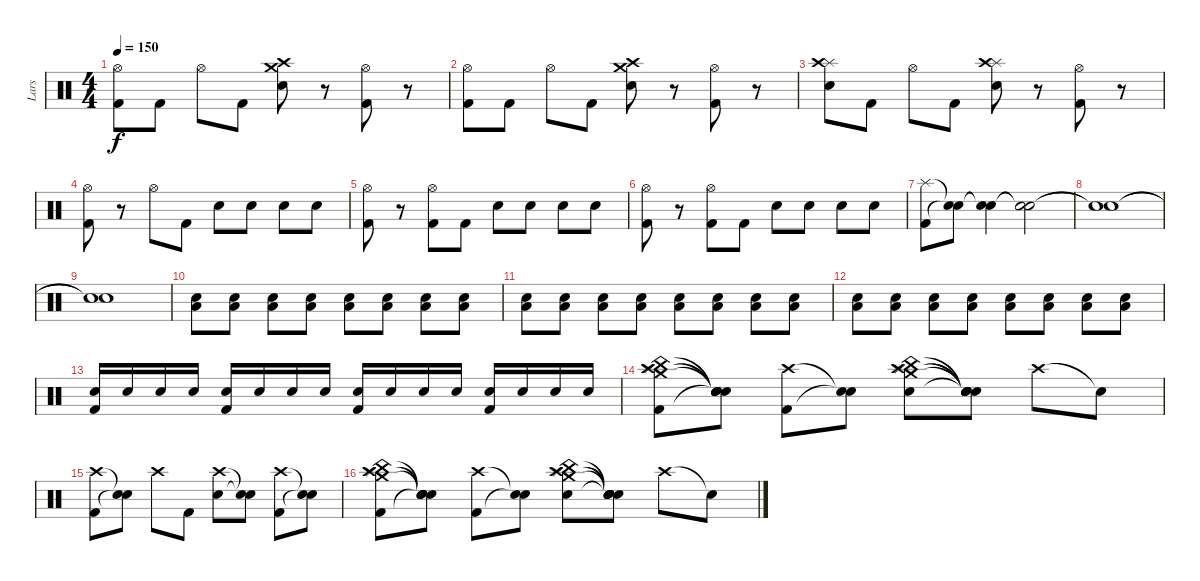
\track ("Lars" "Lars") {instrument percussion}
\staff {score}
\articulation defaults
\ts (4 4)
\tempo 150
\clef neutral
\ks c
("Hi-Hat (open)" "Kick (hit) 2").8{dy f} "Kick (hit) 2".8 "Hi-Hat (open)".8 "Kick (hit) 2".8 ("Crash high (hit)" "Crash medium (hit)" "Snare (hit) 2").8 r.8 ("Kick (hit) 2" "Hi-Hat (open)").8 r.8 |
("Hi-Hat (open)" "Kick (hit) 2").8 "Kick (hit) 2".8 "Hi-Hat (open)".8 "Kick (hit) 2".8 ("Crash medium (hit)" "Crash high (hit)" "Snare (hit) 2").8 r.8 ("Kick (hit) 2" "Hi-Hat (open)").8 r.8 |
("Splash (hit)" "Crash high (hit)" "Snare (hit) 2").8 "Kick (hit) 2".8 "Hi-Hat (open)".8 "Kick (hit) 2".8 ("Splash (hit)" "Crash high (hit)" "Snare (hit) 2").8 r.8 ("Hi-Hat (open)" "Kick (hit) 2").8 r.8 |
("Hi-Hat (open)" "Kick (hit) 2").8 r.8 "Hi-Hat (open)".8 "Kick (hit) 2".8 "Snare (hit) 2".8 "Snare (hit) 2".8 "Snare (hit) 2".8 "Snare (hit) 2".8 |
("Hi-Hat (open)" "Kick (hit) 2").8 r.8 ("Kick (hit) 2" "Hi-Hat (open)").8 "Kick (hit) 2".8 "Snare (hit) 2".8 "Snare (hit) 2".8 "Snare (hit) 2".8 "Snare (hit) 2".8 |
("Hi-Hat (open)" "Kick (hit) 2").8 r.8 ("Kick (hit) 2" "Hi-Hat (open)").8 "Kick (hit) 2".8 "Snare (hit) 2".8 "Snare (hit) 2".8 "Snare (hit) 2".8 "Snare (hit) 2".8 |
("Splash (hit)" "Kick (hit) 2").8 ("Snare (hit)"{t} "Snare (hit)"{t}).8 ("Snare (hit)"{t} "Snare (hit)"{t}).4 ("Snare (hit)"{t} "Snare (hit)"{t}).2 |
("Snare (hit)"{t} "Snare (hit)"{t}).1 |
("Snare (hit)"{t} "Snare (hit)"{t}).1 |
("Low Floor Tom (hit)" "Snare (hit) 2").8 ("Snare (hit) 2" "Low Floor Tom (hit)").8 ("Snare (hit) 2" "Low Floor Tom (hit)").8 ("Snare (hit) 2" "Low Floor Tom (hit)").8 ("Snare (hit) 2" "Low Floor Tom (hit)").8 ("Snare (hit) 2" "Low Floor Tom (hit)").8 ("Snare (hit) 2" "Low Floor Tom (hit)").8 ("Snare (hit) 2" "Low Floor Tom (hit)").8 |
("Low Floor Tom (hit)" "Snare (hit) 2").8 ("Snare (hit) 2" "Low Floor Tom (hit)").8 ("Snare (hit) 2" "Low Floor Tom (hit)").8 ("Snare (hit) 2" "Low Floor Tom (hit)").8 ("Snare (hit) 2" "Low Floor Tom (hit)").8 ("Snare (hit) 2" "Low Floor Tom (hit)").8 ("Snare (hit) 2" "Low Floor Tom (hit)").8 ("Snare (hit) 2" "Low Floor Tom (hit)").8 |
("Low Floor Tom (hit)" "Snare (hit) 2").8 ("Snare (hit) 2" "Low Floor Tom (hit)").8 ("Snare (hit) 2" "Low Floor Tom (hit)").8 ("Snare (hit) 2" "Low Floor Tom (hit)").8 ("Snare (hit) 2" "Low Floor Tom (hit)").8 ("Snare (hit) 2" "Low Floor Tom (hit)").8 ("Snare (hit) 2" "Low Floor Tom (hit)").8 ("Snare (hit) 2" "Low Floor Tom (hit)").8 |
("Kick (hit) 2" "Snare (hit) 2").16 "Snare (hit) 2".16 "Snare (hit) 2".16 "Snare (hit) 2".16 ("Kick (hit) 2" "Snare (hit) 2").16 "Snare (hit) 2".16 "Snare (hit) 2".16 "Snare (hit) 2".16 ("Kick (hit) 2" "Snare (hit) 2").16 "Snare (hit) 2".16 "Snare (hit) 2".16 "Snare (hit) 2".16 ("Kick (hit) 2" "Snare (hit) 2").16 "Snare (hit) 2".16 "Snare (hit) 2".16 "Snare (hit) 2".16 |
("Splash (hit)" "Crash medium (hit)" "China (hit)" "Crash high (hit)" "Kick (hit) 2").8 ("Snare (hit)"{t} "Snare (hit)"{t} "Snare (hit)"{t} "Snare (hit)"{t} "Snare (hit)"{t}).8 ("Crash high (hit)" "Kick (hit) 2").8 ("Snare (hit)"{t} "Snare (hit)"{t}).8 ("Crash medium (hit)" "Splash (hit)" "Crash high (hit)" "China (hit)" "Snare (hit) 2").8 ("Snare (hit)"{t} "Snare (hit)"{t} "Snare (hit)"{t} "Snare (hit)"{t} "Snare (hit)"{t}).8 "Crash high (hit)".8 "Snare (hit)"{t}.8 |
("Crash high (hit)" "Kick (hit) 2").8 ("Snare (hit)"{t} "Snare (hit)"{t}).8 "Crash high (hit)".8 "Kick (hit) 2".8 ("Crash high (hit)" "Snare (hit) 2").8 ("Snare (hit)"{t} "Snare (hit)"{t}).8 ("Kick (hit) 2" "Crash high (hit)").8 ("Snare (hit)"{t} "Snare (hit)"{t}).8 |
("Splash (hit)" "Crash medium (hit)" "China (hit)" "Crash high (hit)" "Kick (hit) 2").8 ("Snare (hit)"{t} "Snare (hit)"{t} "Snare (hit)"{t} "Snare (hit)"{t} "Snare (hit)"{t}).8 ("Crash high (hit)" "Kick (hit) 2").8 ("Snare (hit)"{t} "Snare (hit)"{t}).8 ("Crash medium (hit)" "Splash (hit)" "Crash high (hit)" "China (hit)" "Snare (hit) 2").8 ("Snare (hit)"{t} "Snare (hit)"{t} "Snare (hit)"{t} "Snare (hit)"{t} "Snare (hit)"{t}).8 "Crash high (hit)".8 "Snare (hit)"{t}.8
